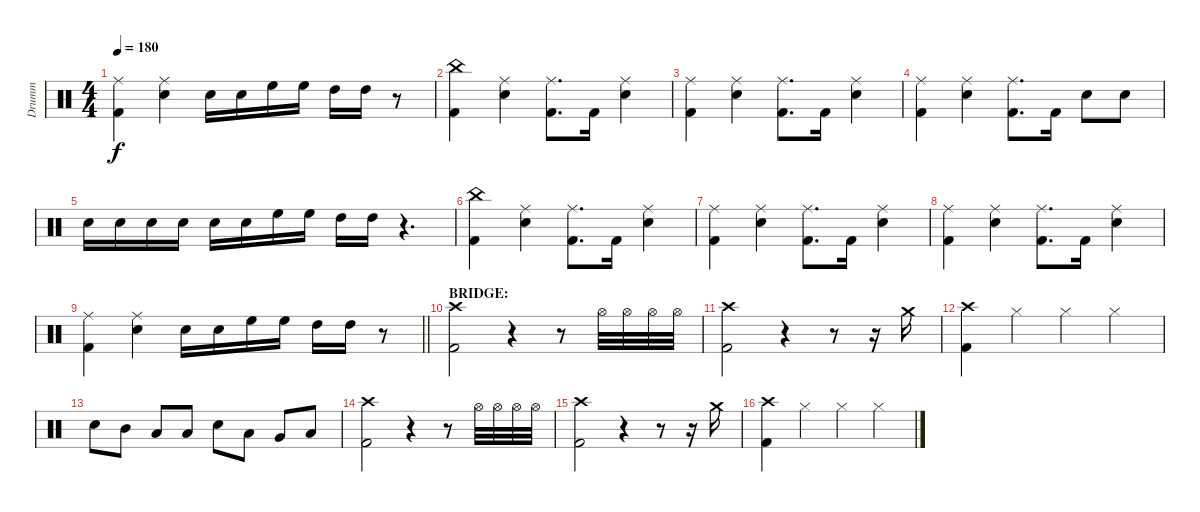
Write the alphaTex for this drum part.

\track ("Drumm" "Drumm") {instrument percussion}
\staff {score}
\articulation defaults
\ts (4 4)
\tempo 180
\clef neutral
\ks c
("Ride (middle)" "Kick (hit) 2").4{dy f} ("Ride (middle)" "Electric Snare (hit)").4 "Electric Snare (hit)".16 "Electric Snare (hit)".16 "High Floor Tom (hit)".16 "High Floor Tom (hit)".16 "High Tom (hit)".16 "High Tom (hit)".16 r.8 |
("China (hit)" "Kick (hit) 2").4 ("Ride (middle)" "Electric Snare (hit)").4 ("Ride (middle)" "Kick (hit) 2").8{d} "Kick (hit) 2".16 ("Ride (middle)" "Electric Snare (hit)").4 |
("Ride (middle)" "Kick (hit) 2").4 ("Ride (middle)" "Electric Snare (hit)").4 ("Ride (middle)" "Kick (hit) 2").8{d} "Kick (hit) 2".16 ("Ride (middle)" "Electric Snare (hit)").4 |
("Ride (middle)" "Kick (hit) 2").4 ("Ride (middle)" "Electric Snare (hit)").4 ("Ride (middle)" "Kick (hit) 2").8{d} "Kick (hit) 2".16 "Electric Snare (hit)".8 "Electric Snare (hit)".8 |
"Electric Snare (hit)".16 "Electric Snare (hit)".16 "Electric Snare (hit)".16 "Electric Snare (hit)".16 "Electric Snare (hit)".16 "Electric Snare (hit)".16 "High Floor Tom (hit)".16 "High Floor Tom (hit)".16 "High Tom (hit)".16 "High Tom (hit)".16 r.4{d} |
("China (hit)" "Kick (hit) 2").4 ("Ride (middle)" "Electric Snare (hit)").4 ("Ride (middle)" "Kick (hit) 2").8{d} "Kick (hit) 2".16 ("Ride (middle)" "Electric Snare (hit)").4 |
("Ride (middle)" "Kick (hit) 2").4 ("Ride (middle)" "Electric Snare (hit)").4 ("Ride (middle)" "Kick (hit) 2").8{d} "Kick (hit) 2".16 ("Ride (middle)" "Electric Snare (hit)").4 |
("Ride (middle)" "Kick (hit) 2").4 ("Ride (middle)" "Electric Snare (hit)").4 ("Ride (middle)" "Kick (hit) 2").8{d} "Kick (hit) 2".16 ("Ride (middle)" "Electric Snare (hit)").4 |
\barLineRight lightlight
("Ride (middle)" "Kick (hit) 2").4 ("Ride (middle)" "Electric Snare (hit)").4 "Electric Snare (hit)".16 "Electric Snare (hit)".16 "High Floor Tom (hit)".16 "High Floor Tom (hit)".16 "High Tom (hit)".16 "High Tom (hit)".16 r.8 |
\section ("" "BRIDGE:")
("Kick (hit) 2" "Crash high (hit)").2 r.4 r.8 "Hi-Hat (open)".32 "Hi-Hat (open)".32 "Hi-Hat (open)".32 "Hi-Hat (open)".32 |
("Kick (hit) 2" "Crash high (hit)").2 r.4 r.8 r.16 "Crash medium (hit)".16 |
("Kick (hit) 2" "Crash high (hit)").4 "Hi-Hat (closed)".4 "Hi-Hat (closed)".4 "Hi-Hat (closed)".4 |
"Electric Snare (hit)".8 "Mid Tom (hit)".8 "Low Tom (hit)".8 "Low Tom (hit)".8 "Electric Snare (hit)".8 "Low Tom (hit)".8 "Very Low Tom (hit)".8 "Low Tom (hit)".8 |
("Kick (hit) 2" "Crash high (hit)").2 r.4 r.8 "Hi-Hat (open)".32 "Hi-Hat (open)".32 "Hi-Hat (open)".32 "Hi-Hat (open)".32 |
("Kick (hit) 2" "Crash high (hit)").2 r.4 r.8 r.16 "Crash medium (hit)".16 |
("Kick (hit) 2" "Crash high (hit)").4 "Hi-Hat (closed)".4 "Hi-Hat (closed)".4 "Hi-Hat (closed)".4
